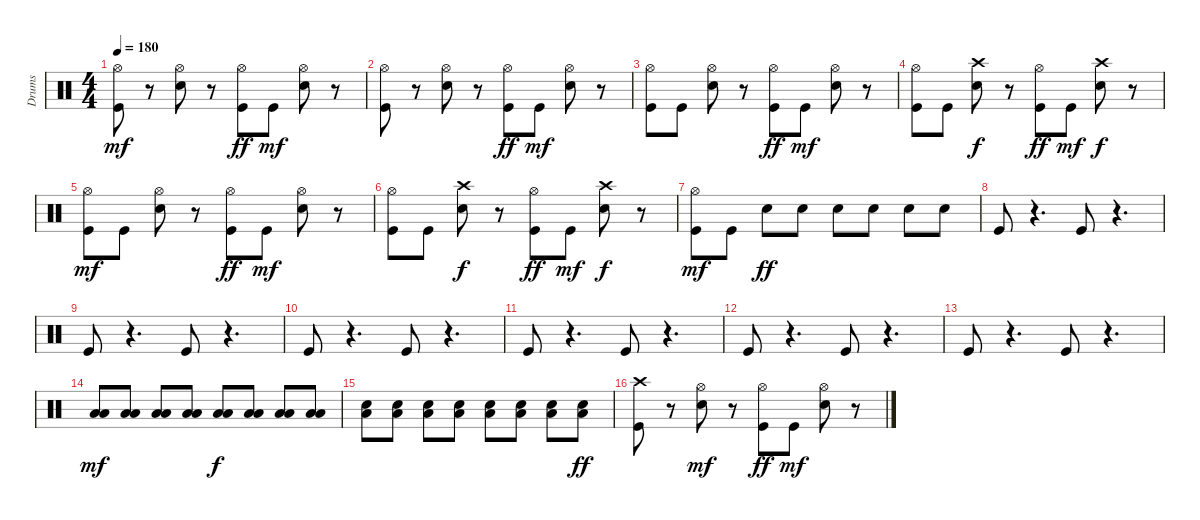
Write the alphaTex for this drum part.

\track ("Drums" "Drums") {instrument percussion}
\staff {score}
\articulation defaults
\ts (4 4)
\tempo 180
\clef neutral
\ks c
("Kick (hit)" "Hi-Hat (open)").8{dy mf} r.8 ("Hi-Hat (open)" "Snare (hit) 2").8 r.8 ("Hi-Hat (open)" "Kick (hit)").8{dy ff} "Kick (hit)".8{dy mf} ("Snare (hit) 2" "Hi-Hat (open)").8 r.8 |
("Kick (hit)" "Hi-Hat (open)").8 r.8 ("Hi-Hat (open)" "Snare (hit) 2").8 r.8 ("Hi-Hat (open)" "Kick (hit)").8{dy ff} "Kick (hit)".8{dy mf} ("Snare (hit) 2" "Hi-Hat (open)").8 r.8 |
("Kick (hit)" "Hi-Hat (open)").8 "Kick (hit)".8 ("Hi-Hat (open)" "Snare (hit) 2").8 r.8 ("Hi-Hat (open)" "Kick (hit)").8{dy ff} "Kick (hit)".8{dy mf} ("Hi-Hat (open)" "Snare (hit) 2").8 r.8 |
("Kick (hit)" "Hi-Hat (open)").8 "Kick (hit)".8 ("Crash high (hit)" "Snare (hit) 2").8{dy f} r.8 ("Hi-Hat (open)" "Kick (hit)").8{dy ff} "Kick (hit)".8{dy mf} ("Crash high (hit)" "Snare (hit) 2").8{dy f} r.8 |
("Kick (hit)" "Hi-Hat (open)").8{dy mf} "Kick (hit)".8 ("Hi-Hat (open)" "Snare (hit) 2").8 r.8 ("Hi-Hat (open)" "Kick (hit)").8{dy ff} "Kick (hit)".8{dy mf} ("Hi-Hat (open)" "Snare (hit) 2").8 r.8 |
("Kick (hit)" "Hi-Hat (open)").8 "Kick (hit)".8 ("Crash high (hit)" "Snare (hit) 2").8{dy f} r.8 ("Hi-Hat (open)" "Kick (hit)").8{dy ff} "Kick (hit)".8{dy mf} ("Crash high (hit)" "Snare (hit) 2").8{dy f} r.8 |
("Kick (hit)" "Hi-Hat (open)").8{dy mf} "Kick (hit)".8 "Snare (hit) 2".8{dy ff} "Snare (hit) 2".8 "Snare (hit) 2".8 "Snare (hit) 2".8 "Snare (hit) 2".8 "Snare (hit) 2".8 |
"Kick (hit)".8 r.4{d} "Kick (hit)".8 r.4{d} |
"Kick (hit)".8 r.4{d} "Kick (hit)".8 r.4{d} |
"Kick (hit)".8 r.4{d} "Kick (hit)".8 r.4{d} |
"Kick (hit)".8 r.4{d} "Kick (hit)".8 r.4{d} |
"Kick (hit)".8 r.4{d} "Kick (hit)".8 r.4{d} |
"Kick (hit)".8 r.4{d} "Kick (hit)".8 r.4{d} |
("Low Tom (hit)" "Low Floor Tom (hit)").8{dy mf} ("Low Tom (hit)" "Low Floor Tom (hit)").8 ("Low Tom (hit)" "Low Floor Tom (hit)").8 ("Low Tom (hit)" "Low Floor Tom (hit)").8 ("Low Tom (hit)" "Low Floor Tom (hit)").8{dy f} ("Low Tom (hit)" "Low Floor Tom (hit)").8 ("Low Tom (hit)" "Low Floor Tom (hit)").8 ("Low Tom (hit)" "Low Floor Tom (hit)").8 |
("Snare (hit) 2" "Low Floor Tom (hit)").8 ("Snare (hit) 2" "Low Floor Tom (hit)").8 ("Snare (hit) 2" "Low Floor Tom (hit)").8 ("Snare (hit) 2" "Low Floor Tom (hit)").8 ("Snare (hit) 2" "Low Floor Tom (hit)").8 ("Snare (hit) 2" "Low Floor Tom (hit)").8 ("Snare (hit) 2" "Low Floor Tom (hit)").8 ("Snare (hit) 2" "Low Floor Tom (hit)").8{dy ff} |
("Crash high (hit)" "Kick (hit)").8 r.8 ("Hi-Hat (open)" "Snare (hit) 2").8{dy mf} r.8 ("Hi-Hat (open)" "Kick (hit)").8{dy ff} "Kick (hit)".8{dy mf} ("Hi-Hat (open)" "Snare (hit) 2").8 r.8
